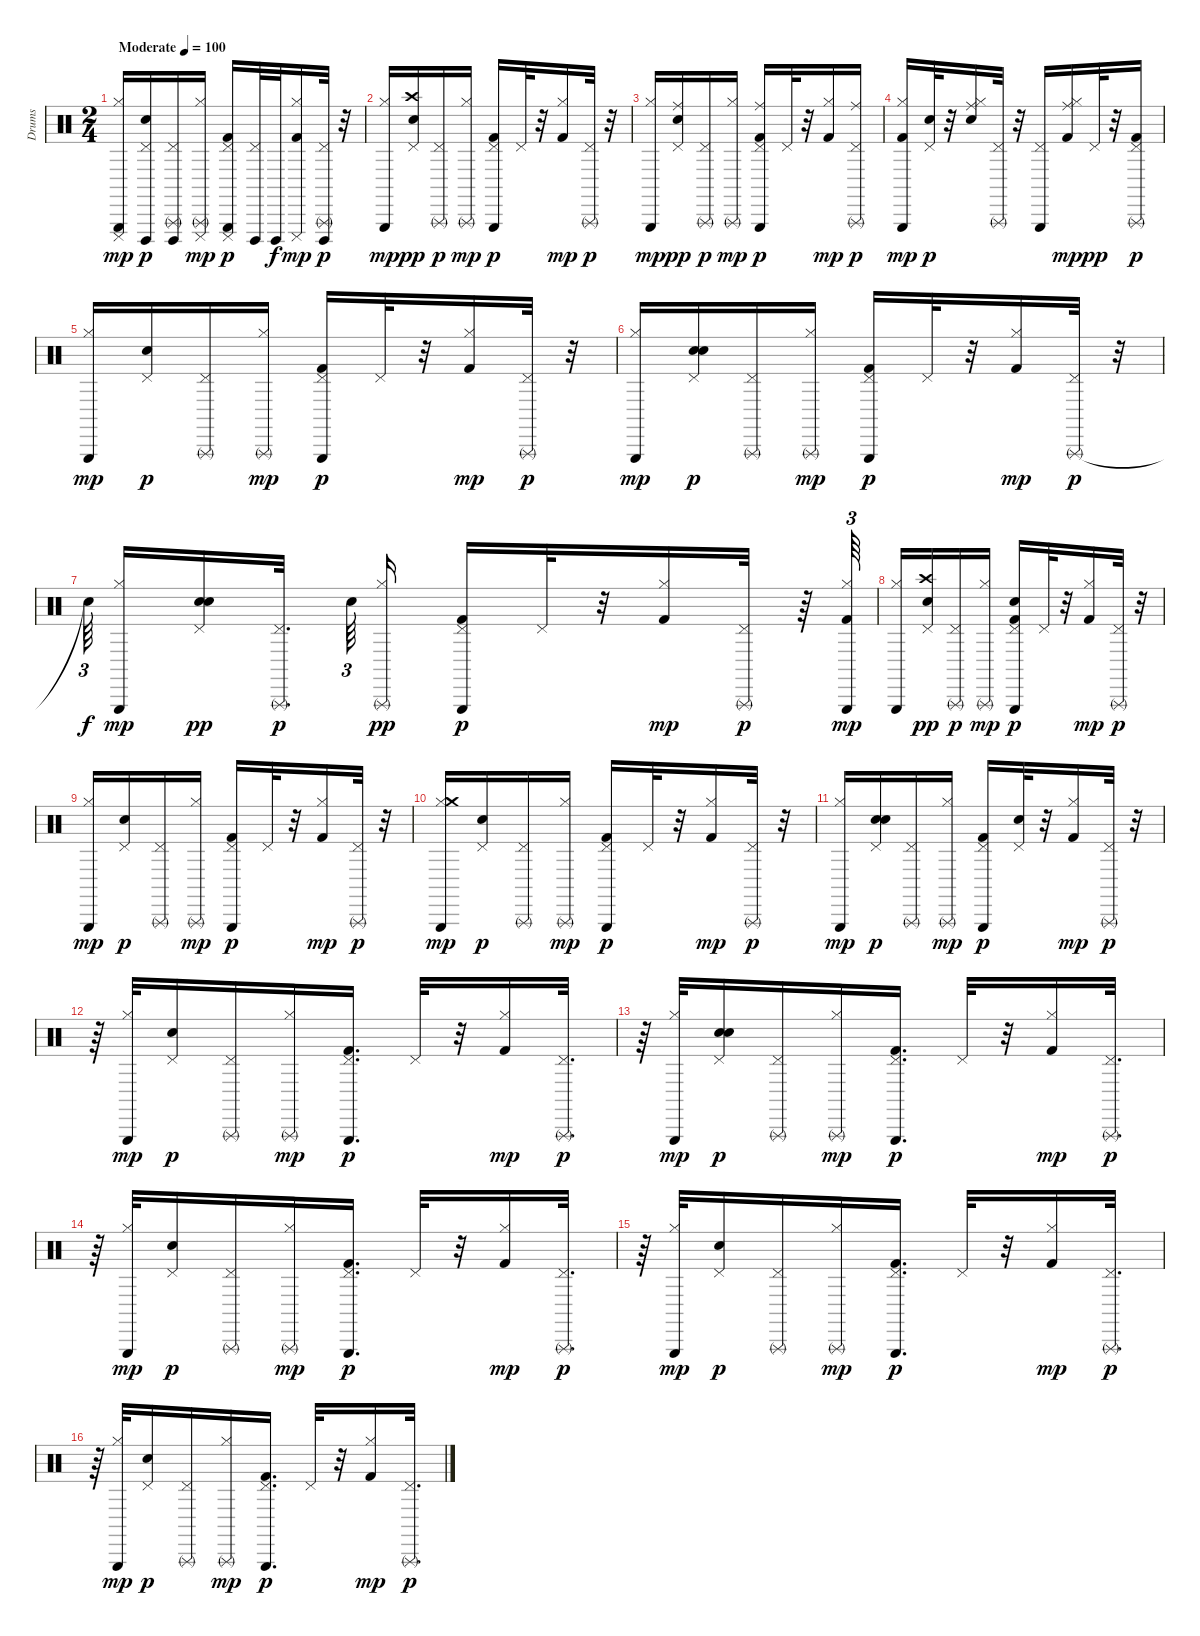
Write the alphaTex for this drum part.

\track ("Drums" "Drums") {instrument percussion}
\staff {score}
\articulation defaults
\ts (2 4)
\tempo (100 "Moderate")
\clef neutral
\ks c
("Triangle (hit)" "Hi-Hat (closed)" "Cuica (mute)").16{dy mp} ("Pedal Hi-Hat (hit)" "Electric Snare (hit)" "Cuica (open)").16{dy p} ("Triangle (rnute)" "Pedal Hi-Hat (hit)" "Cuica (open)").16 ("Triangle (rnute)" "Hi-Hat (closed)" "Cuica (mute)").16{dy mp} ("Triangle (hit)" "Kick (hit) 2" "Pedal Hi-Hat (hit)" "Cuica (mute)").16{dy p} ("Pedal Hi-Hat (hit)" "Cuica (open)").32 "Cuica (open)".32{dy f} ("Kick (hit) 2" "Hi-Hat (closed)" "Cuica (mute)").16{dy mp} ("Triangle (rnute)" "Pedal Hi-Hat (hit)" "Cuica (open)").32{dy p} r.32 |
("Triangle (hit)" "Hi-Hat (closed)").16{dy mp} ("Crash high (hit)" "Electric Snare (hit)" "Pedal Hi-Hat (hit)").16{dy pp} ("Triangle (rnute)" "Pedal Hi-Hat (hit)").16{dy p} ("Triangle (rnute)" "Hi-Hat (closed)").16{dy mp} ("Triangle (hit)" "Kick (hit) 2" "Pedal Hi-Hat (hit)").16{dy p} "Pedal Hi-Hat (hit)".32 r.32 ("Kick (hit) 2" "Hi-Hat (closed)").16{dy mp} ("Triangle (rnute)" "Pedal Hi-Hat (hit)").32{dy p} r.32 |
("Triangle (hit)" "Hi-Hat (closed)").16{dy mp} ("Ride (middle)" "Electric Snare (hit)" "Pedal Hi-Hat (hit)").16{dy pp} ("Triangle (rnute)" "Pedal Hi-Hat (hit)").16{dy p} ("Triangle (rnute)" "Hi-Hat (closed)").16{dy mp} ("Triangle (hit)" "Ride (middle)" "Kick (hit) 2" "Pedal Hi-Hat (hit)").16{dy p} "Pedal Hi-Hat (hit)".32 r.32 ("Kick (hit) 2" "Hi-Hat (closed)").16{dy mp} ("Triangle (rnute)" "Ride (middle)" "Pedal Hi-Hat (hit)").16{dy p} |
("Triangle (hit)" "Kick (hit) 2" "Hi-Hat (closed)").16{dy mp} ("Pedal Hi-Hat (hit)" "Electric Snare (hit)").32{dy p} r.32 ("Ride (middle)" "Electric Snare (hit)" "Hi-Hat (closed)").16 ("Triangle (rnute)" "Pedal Hi-Hat (hit)").32 r.32 ("Triangle (hit)" "Pedal Hi-Hat (hit)").16 ("Ride (middle)" "Kick (hit) 2" "Hi-Hat (closed)").16{dy mp} "Pedal Hi-Hat (hit)".32{dy pp} r.32 ("Triangle (rnute)" "Kick (hit) 2" "Pedal Hi-Hat (hit)").16{dy p} |
("Triangle (hit)" "Hi-Hat (closed)").16{dy mp} ("Pedal Hi-Hat (hit)" "Electric Snare (hit)").16{dy p} ("Triangle (rnute)" "Pedal Hi-Hat (hit)").16 ("Triangle (rnute)" "Hi-Hat (closed)").16{dy mp} ("Triangle (hit)" "Kick (hit) 2" "Pedal Hi-Hat (hit)").16{dy p} "Pedal Hi-Hat (hit)".32 r.32 ("Kick (hit) 2" "Hi-Hat (closed)").16{dy mp} ("Triangle (rnute)" "Pedal Hi-Hat (hit)").32{dy p} r.32 |
("Triangle (hit)" "Hi-Hat (closed)").16{dy mp} ("Pedal Hi-Hat (hit)" "Electric Snare (hit)" "Electric Snare (hit)").16{dy p} ("Triangle (rnute)" "Pedal Hi-Hat (hit)").16 ("Triangle (rnute)" "Hi-Hat (closed)").16{dy mp} ("Triangle (hit)" "Kick (hit) 2" "Pedal Hi-Hat (hit)").16{dy p} "Pedal Hi-Hat (hit)".32 r.32 ("Kick (hit) 2" "Hi-Hat (closed)").16{dy mp} ("Triangle (rnute)" "Pedal Hi-Hat (hit)").32{dy p} r.32 |
"Snare (hit)"{t}.64{tu (3 2) dy f beam splitsecondary} ("Triangle (hit)" "Hi-Hat (closed)").16{dy mp} ("Electric Snare (hit)" "Pedal Hi-Hat (hit)" "Electric Snare (hit)").16{dy pp} ("Triangle (rnute)" "Pedal Hi-Hat (hit)").32{d dy p beam splitsecondary} "Electric Snare (hit)".64{tu (3 2)} ("Hi-Hat (closed)" "Triangle (rnute)").16{dy pp} ("Triangle (hit)" "Kick (hit) 2" "Pedal Hi-Hat (hit)").16{dy p} "Pedal Hi-Hat (hit)".32 r.32 ("Kick (hit) 2" "Hi-Hat (closed)").16{dy mp} ("Triangle (rnute)" "Pedal Hi-Hat (hit)").32{dy p} r.64 ("Triangle (hit)" "Kick (hit) 2" "Hi-Hat (closed)").64{tu (3 2) dy mp} |
("Triangle (hit)" "Hi-Hat (closed)").16 ("Crash high (hit)" "Electric Snare (hit)" "Pedal Hi-Hat (hit)").16{dy pp} ("Triangle (rnute)" "Pedal Hi-Hat (hit)").16{dy p} ("Triangle (rnute)" "Hi-Hat (closed)").16{dy mp} ("Triangle (hit)" "Kick (hit) 2" "Pedal Hi-Hat (hit)" "Electric Snare (hit)").16{dy p} "Pedal Hi-Hat (hit)".32 r.32 ("Kick (hit) 2" "Hi-Hat (closed)").16{dy mp} ("Triangle (rnute)" "Pedal Hi-Hat (hit)").32{dy p} r.32 |
("Triangle (hit)" "Hi-Hat (closed)").16{dy mp} ("Pedal Hi-Hat (hit)" "Electric Snare (hit)").16{dy p} ("Triangle (rnute)" "Pedal Hi-Hat (hit)").16 ("Triangle (rnute)" "Hi-Hat (closed)").16{dy mp} ("Triangle (hit)" "Kick (hit) 2" "Pedal Hi-Hat (hit)").16{dy p} "Pedal Hi-Hat (hit)".32 r.32 ("Kick (hit) 2" "Hi-Hat (closed)").16{dy mp} ("Triangle (rnute)" "Pedal Hi-Hat (hit)").32{dy p} r.32 |
("Triangle (hit)" "Hi-Hat (closed)" "Crash medium (hit)").16{dy mp} ("Pedal Hi-Hat (hit)" "Electric Snare (hit)").16{dy p} ("Triangle (rnute)" "Pedal Hi-Hat (hit)").16 ("Triangle (rnute)" "Hi-Hat (closed)").16{dy mp} ("Triangle (hit)" "Kick (hit) 2" "Pedal Hi-Hat (hit)").16{dy p} "Pedal Hi-Hat (hit)".32 r.32 ("Kick (hit) 2" "Hi-Hat (closed)").16{dy mp} ("Triangle (rnute)" "Pedal Hi-Hat (hit)").32{dy p} r.32 |
("Triangle (hit)" "Hi-Hat (closed)").16{dy mp} ("Pedal Hi-Hat (hit)" "Electric Snare (hit)" "Electric Snare (hit)").16{dy p} ("Triangle (rnute)" "Pedal Hi-Hat (hit)").16 ("Triangle (rnute)" "Hi-Hat (closed)").16{dy mp} ("Triangle (hit)" "Kick (hit) 2" "Pedal Hi-Hat (hit)").16{dy p} ("Pedal Hi-Hat (hit)" "Electric Snare (hit)").32 r.32 ("Kick (hit) 2" "Hi-Hat (closed)").16{dy mp} ("Triangle (rnute)" "Pedal Hi-Hat (hit)").32{dy p} r.32 |
r.64 ("Triangle (hit)" "Hi-Hat (closed)").32{dy mp} ("Pedal Hi-Hat (hit)" "Electric Snare (hit)").16{dy p} ("Triangle (rnute)" "Pedal Hi-Hat (hit)").16 ("Triangle (rnute)" "Hi-Hat (closed)").16{dy mp} ("Triangle (hit)" "Kick (hit) 2" "Pedal Hi-Hat (hit)").16{d dy p} "Pedal Hi-Hat (hit)".32 r.32 ("Kick (hit) 2" "Hi-Hat (closed)").16{dy mp} ("Triangle (rnute)" "Pedal Hi-Hat (hit)").32{d dy p} |
r.64 ("Triangle (hit)" "Hi-Hat (closed)").32{dy mp} ("Pedal Hi-Hat (hit)" "Electric Snare (hit)" "Electric Snare (hit)").16{dy p} ("Triangle (rnute)" "Pedal Hi-Hat (hit)").16 ("Triangle (rnute)" "Hi-Hat (closed)").16{dy mp} ("Triangle (hit)" "Kick (hit) 2" "Pedal Hi-Hat (hit)").16{d dy p} "Pedal Hi-Hat (hit)".32 r.32 ("Kick (hit) 2" "Hi-Hat (closed)").16{dy mp} ("Triangle (rnute)" "Pedal Hi-Hat (hit)").32{d dy p} |
r.64 ("Triangle (hit)" "Hi-Hat (closed)").32{dy mp} ("Pedal Hi-Hat (hit)" "Electric Snare (hit)").16{dy p} ("Triangle (rnute)" "Pedal Hi-Hat (hit)").16 ("Triangle (rnute)" "Hi-Hat (closed)").16{dy mp} ("Triangle (hit)" "Kick (hit) 2" "Pedal Hi-Hat (hit)").16{d dy p} "Pedal Hi-Hat (hit)".32 r.32 ("Kick (hit) 2" "Hi-Hat (closed)").16{dy mp} ("Triangle (rnute)" "Pedal Hi-Hat (hit)").32{d dy p} |
r.64 ("Triangle (hit)" "Hi-Hat (closed)").32{dy mp} ("Pedal Hi-Hat (hit)" "Electric Snare (hit)").16{dy p} ("Triangle (rnute)" "Pedal Hi-Hat (hit)").16 ("Triangle (rnute)" "Hi-Hat (closed)").16{dy mp} ("Triangle (hit)" "Kick (hit) 2" "Pedal Hi-Hat (hit)").16{d dy p} "Pedal Hi-Hat (hit)".32 r.32 ("Kick (hit) 2" "Hi-Hat (closed)").16{dy mp} ("Triangle (rnute)" "Pedal Hi-Hat (hit)").32{d dy p} |
r.64 ("Triangle (hit)" "Hi-Hat (closed)").32{dy mp} ("Pedal Hi-Hat (hit)" "Electric Snare (hit)").16{dy p} ("Triangle (rnute)" "Pedal Hi-Hat (hit)").16 ("Triangle (rnute)" "Hi-Hat (closed)").16{dy mp} ("Triangle (hit)" "Kick (hit) 2" "Pedal Hi-Hat (hit)").16{d dy p} "Pedal Hi-Hat (hit)".32 r.32 ("Kick (hit) 2" "Hi-Hat (closed)").16{dy mp} ("Triangle (rnute)" "Pedal Hi-Hat (hit)").32{d dy p}
